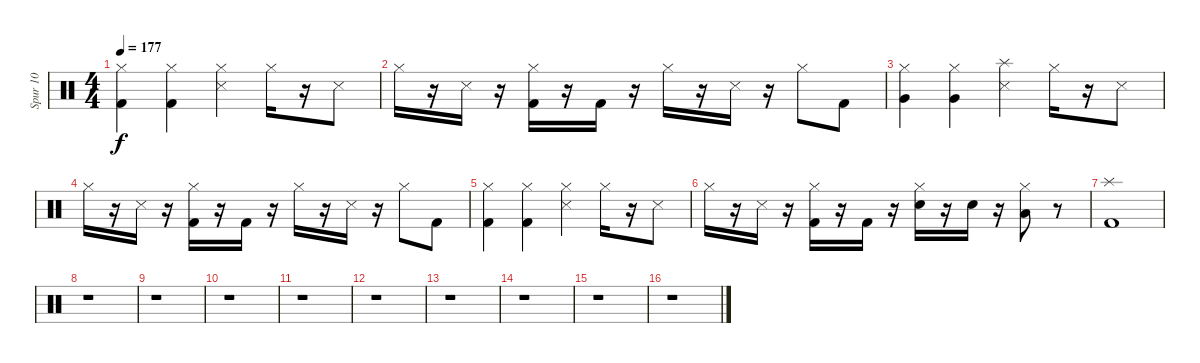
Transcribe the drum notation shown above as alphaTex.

\track ("Spur 10" "Spur 10") {instrument percussion}
\staff {score}
\articulation defaults
\ts (4 4)
\tempo 177
\clef neutral
\ks c
("Hi-Hat (closed)" "Kick (hit) 2").4{dy f} ("Hi-Hat (closed)" "Kick (hit) 2").4 ("Hi-Hat (closed)" "Metronome (hit)").4 "Hi-Hat (closed)".16 r.16 "Metronome (hit)".8 |
"Hi-Hat (closed)".16 r.16 "Metronome (hit)".16 r.16 ("Kick (hit) 2" "Hi-Hat (closed)").16 r.16 "Kick (hit) 2".16 r.16 "Hi-Hat (closed)".16 r.16 "Metronome (hit)".16 r.16 "Hi-Hat (closed)".8 "Kick (hit) 2".8 |
("Hi-Hat (closed)" "Very Low Tom (hit)").4 ("Hi-Hat (closed)" "Very Low Tom (hit)").4 ("Splash (hit)" "Metronome (hit)").4 "Hi-Hat (closed)".16 r.16 "Metronome (hit)".8 |
"Hi-Hat (closed)".16 r.16 "Metronome (hit)".16 r.16 ("Kick (hit) 2" "Hi-Hat (closed)").16 r.16 "Kick (hit) 2".16 r.16 "Hi-Hat (closed)".16 r.16 "Metronome (hit)".16 r.16 "Hi-Hat (closed)".8 "Kick (hit) 2".8 |
("Hi-Hat (closed)" "Kick (hit) 2").4 ("Hi-Hat (closed)" "Kick (hit) 2").4 ("Hi-Hat (closed)" "Metronome (hit)").4 "Hi-Hat (closed)".16 r.16 "Metronome (hit)".8 |
"Hi-Hat (closed)".16 r.16 "Metronome (hit)".16 r.16 ("Kick (hit) 2" "Hi-Hat (closed)").16 r.16 "Kick (hit) 2".16 r.16 ("Electric Snare (hit)" "Hi-Hat (closed)").16 r.16 "Electric Snare (hit)".16 r.16 ("Low Floor Tom (hit)" "Hi-Hat (closed)").8 r.8 |
("Splash (hit)" "Kick (hit) 2").1 |
r.1 |
r.1 |
r.1 |
r.1 |
r.1 |
r.1 |
r.1 |
r.1 |
r.1
